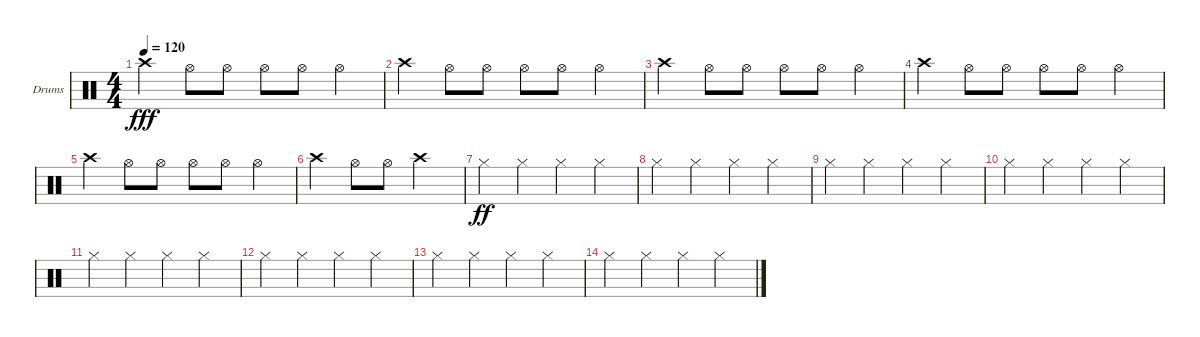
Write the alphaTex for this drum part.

\defaultSystemsLayout 4
\bracketExtendMode groupsimilarinstruments
\firstSystemTrackNameOrientation horizontal
\otherSystemsTrackNameOrientation horizontal
\track ("Пашок" "Drums") {instrument percussion}
\staff {score}
\articulation defaults
\ts (4 4)
\tempo 120
\clef neutral
\ks c "Crash high (hit)".4{dy fff} "Hi-Hat (open)".8 "Hi-Hat (open)".8 "Hi-Hat (open)".8 "Hi-Hat (open)".8 "Hi-Hat (open)".4
|
"Crash high (hit)".4 "Hi-Hat (open)".8 "Hi-Hat (open)".8 "Hi-Hat (open)".8 "Hi-Hat (open)".8 "Hi-Hat (open)".4 |
"Crash high (hit)".4 "Hi-Hat (open)".8 "Hi-Hat (open)".8 "Hi-Hat (open)".8 "Hi-Hat (open)".8 "Hi-Hat (open)".4 |
"Crash high (hit)".4 "Hi-Hat (open)".8 "Hi-Hat (open)".8 "Hi-Hat (open)".8 "Hi-Hat (open)".8 "Hi-Hat (open)".4 |
"Crash high (hit)".4 "Hi-Hat (open)".8 "Hi-Hat (open)".8 "Hi-Hat (open)".8 "Hi-Hat (open)".8 "Hi-Hat (open)".4 |
"Crash high (hit)".4 "Hi-Hat (open)".8 "Hi-Hat (open)".8 "Crash high (hit)".2 |
"Hi-Hat (closed)".4{dy ff} "Hi-Hat (closed)".4 "Hi-Hat (closed)".4 "Hi-Hat (closed)".4 |
"Hi-Hat (closed)".4 "Hi-Hat (closed)".4 "Hi-Hat (closed)".4 "Hi-Hat (closed)".4 |
"Hi-Hat (closed)".4 "Hi-Hat (closed)".4 "Hi-Hat (closed)".4 "Hi-Hat (closed)".4 |
"Hi-Hat (closed)".4 "Hi-Hat (closed)".4 "Hi-Hat (closed)".4 "Hi-Hat (closed)".4 |
"Hi-Hat (closed)".4 "Hi-Hat (closed)".4 "Hi-Hat (closed)".4 "Hi-Hat (closed)".4 |
"Hi-Hat (closed)".4 "Hi-Hat (closed)".4 "Hi-Hat (closed)".4 "Hi-Hat (closed)".4 |
"Hi-Hat (closed)".4 "Hi-Hat (closed)".4 "Hi-Hat (closed)".4 "Hi-Hat (closed)".4 |
"Hi-Hat (closed)".4 "Hi-Hat (closed)".4 "Hi-Hat (closed)".4 "Hi-Hat (closed)".4
